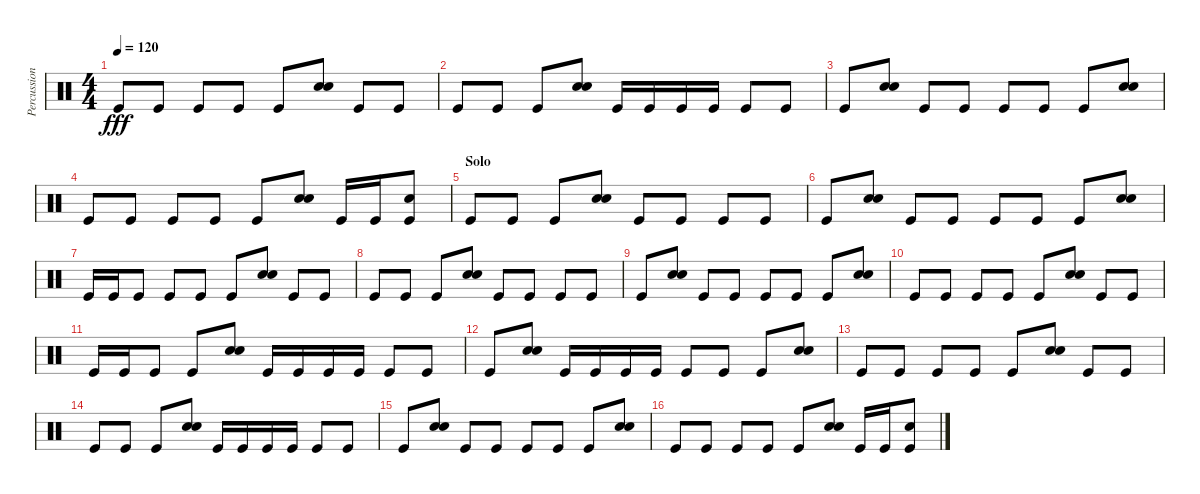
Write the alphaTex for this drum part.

\track ("Percussion" "Percussion") {instrument percussion}
\staff {score}
\articulation defaults
\ts (4 4)
\tempo 120
\clef neutral
\ks c "Kick (hit)".8{dy fff} "Kick (hit)".8 "Kick (hit)".8 "Kick (hit)".8 "Kick (hit)".8
("Snare (hit) 2" "Electric Snare (hit)").8 "Kick (hit)".8 "Kick (hit)".8 |
"Kick (hit)".8 "Kick (hit)".8 "Kick (hit)".8 ("Snare (hit) 2" "Electric Snare (hit)").8 "Kick (hit)".16 "Kick (hit)".16 "Kick (hit)".16 "Kick (hit)".16 "Kick (hit)".8 "Kick (hit)".8 |
"Kick (hit)".8 ("Snare (hit) 2" "Electric Snare (hit)").8 "Kick (hit)".8 "Kick (hit)".8 "Kick (hit)".8 "Kick (hit)".8 "Kick (hit)".8 ("Snare (hit) 2" "Electric Snare (hit)").8 |
"Kick (hit)".8 "Kick (hit)".8 "Kick (hit)".8 "Kick (hit)".8 "Kick (hit)".8 ("Snare (hit) 2" "Electric Snare (hit)").8 "Kick (hit)".16 "Kick (hit)".16 ("Snare (hit) 2" "Kick (hit)").8 |
\section ("" "Solo")
"Kick (hit)".8 "Kick (hit)".8 "Kick (hit)".8 ("Snare (hit) 2" "Electric Snare (hit)").8 "Kick (hit)".8 "Kick (hit)".8 "Kick (hit)".8 "Kick (hit)".8 |
"Kick (hit)".8 ("Snare (hit) 2" "Electric Snare (hit)").8 "Kick (hit)".8 "Kick (hit)".8 "Kick (hit)".8 "Kick (hit)".8 "Kick (hit)".8 ("Snare (hit) 2" "Electric Snare (hit)").8 |
"Kick (hit)".16 "Kick (hit)".16 "Kick (hit)".8 "Kick (hit)".8 "Kick (hit)".8 "Kick (hit)".8 ("Snare (hit) 2" "Electric Snare (hit)").8 "Kick (hit)".8 "Kick (hit)".8 |
"Kick (hit)".8 "Kick (hit)".8 "Kick (hit)".8 ("Snare (hit) 2" "Electric Snare (hit)").8 "Kick (hit)".8 "Kick (hit)".8 "Kick (hit)".8 "Kick (hit)".8 |
"Kick (hit)".8 ("Snare (hit) 2" "Electric Snare (hit)").8 "Kick (hit)".8 "Kick (hit)".8 "Kick (hit)".8 "Kick (hit)".8 "Kick (hit)".8 ("Snare (hit) 2" "Electric Snare (hit)").8 |
"Kick (hit)".8 "Kick (hit)".8 "Kick (hit)".8 "Kick (hit)".8 "Kick (hit)".8 ("Snare (hit) 2" "Electric Snare (hit)").8 "Kick (hit)".8 "Kick (hit)".8 |
"Kick (hit)".16 "Kick (hit)".16 "Kick (hit)".8 "Kick (hit)".8 ("Snare (hit) 2" "Electric Snare (hit)").8 "Kick (hit)".16 "Kick (hit)".16 "Kick (hit)".16 "Kick (hit)".16 "Kick (hit)".8 "Kick (hit)".8 |
"Kick (hit)".8 ("Snare (hit) 2" "Electric Snare (hit)").8 "Kick (hit)".16 "Kick (hit)".16 "Kick (hit)".16 "Kick (hit)".16 "Kick (hit)".8 "Kick (hit)".8 "Kick (hit)".8 ("Snare (hit) 2" "Electric Snare (hit)").8 |
"Kick (hit)".8 "Kick (hit)".8 "Kick (hit)".8 "Kick (hit)".8 "Kick (hit)".8 ("Snare (hit) 2" "Electric Snare (hit)").8 "Kick (hit)".8 "Kick (hit)".8 |
"Kick (hit)".8 "Kick (hit)".8 "Kick (hit)".8 ("Snare (hit) 2" "Electric Snare (hit)").8 "Kick (hit)".16 "Kick (hit)".16 "Kick (hit)".16 "Kick (hit)".16 "Kick (hit)".8 "Kick (hit)".8 |
"Kick (hit)".8 ("Snare (hit) 2" "Electric Snare (hit)").8 "Kick (hit)".8 "Kick (hit)".8 "Kick (hit)".8 "Kick (hit)".8 "Kick (hit)".8 ("Snare (hit) 2" "Electric Snare (hit)").8 |
"Kick (hit)".8 "Kick (hit)".8 "Kick (hit)".8 "Kick (hit)".8 "Kick (hit)".8 ("Snare (hit) 2" "Electric Snare (hit)").8 "Kick (hit)".16 "Kick (hit)".16 ("Snare (hit) 2" "Kick (hit)").8
